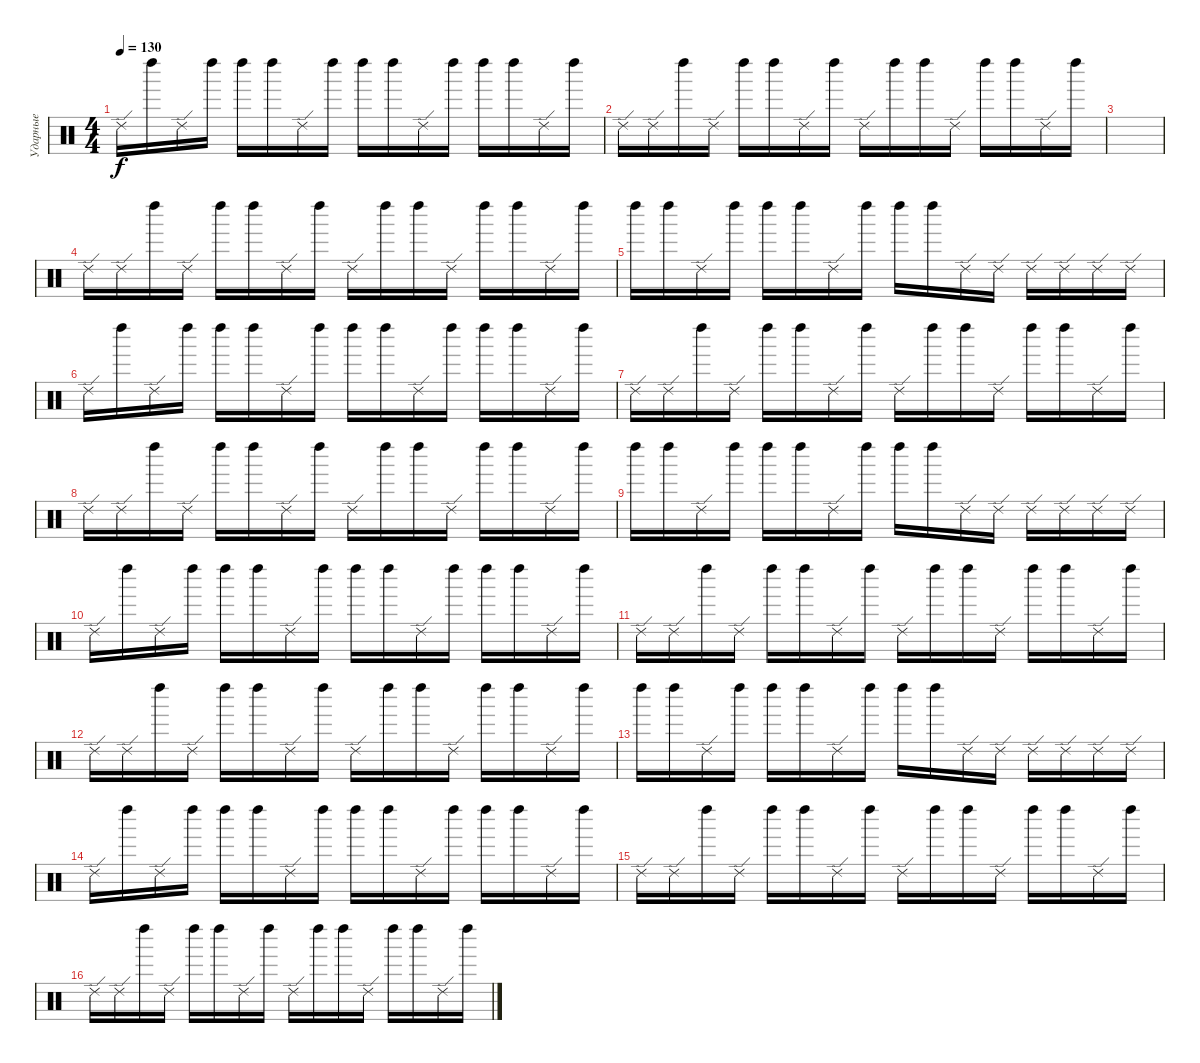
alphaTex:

\track ("Ударные" "Ударные") {instrument percussion}
\staff {score}
\articulation defaults
\ts (4 4)
\tempo 130
\clef neutral
\ks c "Ride (edge) 2".16{dy f} "Left Maraca (hit)".16 "Ride (edge) 2".16 "Left Maraca (hit)".16 "Left Maraca (hit)".16 "Left Maraca (hit)".16 "Ride (edge) 2".16 "Left Maraca (hit)".16 "Left Maraca (hit)".16 "Left Maraca (hit)".16 "Ride (edge) 2".16 "Left Maraca (hit)".16 "Left Maraca (hit)".16 "Left Maraca (hit)".16 "Ride (edge) 2".16 "Left Maraca (hit)".16
|
"Ride (edge) 2".16 "Ride (edge) 2".16 "Left Maraca (hit)".16 "Ride (edge) 2".16 "Left Maraca (hit)".16 "Left Maraca (hit)".16 "Ride (edge) 2".16 "Left Maraca (hit)".16 "Ride (edge) 2".16 "Left Maraca (hit)".16 "Left Maraca (hit)".16 "Ride (edge) 2".16 "Left Maraca (hit)".16 "Left Maraca (hit)".16 "Ride (edge) 2".16 "Left Maraca (hit)".16 |
|
"Ride (edge) 2".16 "Ride (edge) 2".16 "Left Maraca (hit)".16 "Ride (edge) 2".16 "Left Maraca (hit)".16 "Left Maraca (hit)".16 "Ride (edge) 2".16 "Left Maraca (hit)".16 "Ride (edge) 2".16 "Left Maraca (hit)".16 "Left Maraca (hit)".16 "Ride (edge) 2".16 "Left Maraca (hit)".16 "Left Maraca (hit)".16 "Ride (edge) 2".16 "Left Maraca (hit)".16 |
"Left Maraca (hit)".16 "Left Maraca (hit)".16 "Ride (edge) 2".16 "Left Maraca (hit)".16 "Left Maraca (hit)".16 "Left Maraca (hit)".16 "Ride (edge) 2".16 "Left Maraca (hit)".16 "Left Maraca (hit)".16 "Left Maraca (hit)".16 "Ride (edge) 2".16 "Ride (edge) 2".16 "Ride (edge) 2".16 "Ride (edge) 2".16 "Ride (edge) 2".16 "Ride (edge) 2".16 |
"Ride (edge) 2".16 "Left Maraca (hit)".16 "Ride (edge) 2".16 "Left Maraca (hit)".16 "Left Maraca (hit)".16 "Left Maraca (hit)".16 "Ride (edge) 2".16 "Left Maraca (hit)".16 "Left Maraca (hit)".16 "Left Maraca (hit)".16 "Ride (edge) 2".16 "Left Maraca (hit)".16 "Left Maraca (hit)".16 "Left Maraca (hit)".16 "Ride (edge) 2".16 "Left Maraca (hit)".16 |
"Ride (edge) 2".16 "Ride (edge) 2".16 "Left Maraca (hit)".16 "Ride (edge) 2".16 "Left Maraca (hit)".16 "Left Maraca (hit)".16 "Ride (edge) 2".16 "Left Maraca (hit)".16 "Ride (edge) 2".16 "Left Maraca (hit)".16 "Left Maraca (hit)".16 "Ride (edge) 2".16 "Left Maraca (hit)".16 "Left Maraca (hit)".16 "Ride (edge) 2".16 "Left Maraca (hit)".16 |
"Ride (edge) 2".16 "Ride (edge) 2".16 "Left Maraca (hit)".16 "Ride (edge) 2".16 "Left Maraca (hit)".16 "Left Maraca (hit)".16 "Ride (edge) 2".16 "Left Maraca (hit)".16 "Ride (edge) 2".16 "Left Maraca (hit)".16 "Left Maraca (hit)".16 "Ride (edge) 2".16 "Left Maraca (hit)".16 "Left Maraca (hit)".16 "Ride (edge) 2".16 "Left Maraca (hit)".16 |
"Left Maraca (hit)".16 "Left Maraca (hit)".16 "Ride (edge) 2".16 "Left Maraca (hit)".16 "Left Maraca (hit)".16 "Left Maraca (hit)".16 "Ride (edge) 2".16 "Left Maraca (hit)".16 "Left Maraca (hit)".16 "Left Maraca (hit)".16 "Ride (edge) 2".16 "Ride (edge) 2".16 "Ride (edge) 2".16 "Ride (edge) 2".16 "Ride (edge) 2".16 "Ride (edge) 2".16 |
"Ride (edge) 2".16 "Left Maraca (hit)".16 "Ride (edge) 2".16 "Left Maraca (hit)".16 "Left Maraca (hit)".16 "Left Maraca (hit)".16 "Ride (edge) 2".16 "Left Maraca (hit)".16 "Left Maraca (hit)".16 "Left Maraca (hit)".16 "Ride (edge) 2".16 "Left Maraca (hit)".16 "Left Maraca (hit)".16 "Left Maraca (hit)".16 "Ride (edge) 2".16 "Left Maraca (hit)".16 |
"Ride (edge) 2".16 "Ride (edge) 2".16 "Left Maraca (hit)".16 "Ride (edge) 2".16 "Left Maraca (hit)".16 "Left Maraca (hit)".16 "Ride (edge) 2".16 "Left Maraca (hit)".16 "Ride (edge) 2".16 "Left Maraca (hit)".16 "Left Maraca (hit)".16 "Ride (edge) 2".16 "Left Maraca (hit)".16 "Left Maraca (hit)".16 "Ride (edge) 2".16 "Left Maraca (hit)".16 |
"Ride (edge) 2".16 "Ride (edge) 2".16 "Left Maraca (hit)".16 "Ride (edge) 2".16 "Left Maraca (hit)".16 "Left Maraca (hit)".16 "Ride (edge) 2".16 "Left Maraca (hit)".16 "Ride (edge) 2".16 "Left Maraca (hit)".16 "Left Maraca (hit)".16 "Ride (edge) 2".16 "Left Maraca (hit)".16 "Left Maraca (hit)".16 "Ride (edge) 2".16 "Left Maraca (hit)".16 |
"Left Maraca (hit)".16 "Left Maraca (hit)".16 "Ride (edge) 2".16 "Left Maraca (hit)".16 "Left Maraca (hit)".16 "Left Maraca (hit)".16 "Ride (edge) 2".16 "Left Maraca (hit)".16 "Left Maraca (hit)".16 "Left Maraca (hit)".16 "Ride (edge) 2".16 "Ride (edge) 2".16 "Ride (edge) 2".16 "Ride (edge) 2".16 "Ride (edge) 2".16 "Ride (edge) 2".16 |
"Ride (edge) 2".16 "Left Maraca (hit)".16 "Ride (edge) 2".16 "Left Maraca (hit)".16 "Left Maraca (hit)".16 "Left Maraca (hit)".16 "Ride (edge) 2".16 "Left Maraca (hit)".16 "Left Maraca (hit)".16 "Left Maraca (hit)".16 "Ride (edge) 2".16 "Left Maraca (hit)".16 "Left Maraca (hit)".16 "Left Maraca (hit)".16 "Ride (edge) 2".16 "Left Maraca (hit)".16 |
"Ride (edge) 2".16 "Ride (edge) 2".16 "Left Maraca (hit)".16 "Ride (edge) 2".16 "Left Maraca (hit)".16 "Left Maraca (hit)".16 "Ride (edge) 2".16 "Left Maraca (hit)".16 "Ride (edge) 2".16 "Left Maraca (hit)".16 "Left Maraca (hit)".16 "Ride (edge) 2".16 "Left Maraca (hit)".16 "Left Maraca (hit)".16 "Ride (edge) 2".16 "Left Maraca (hit)".16 |
"Ride (edge) 2".16 "Ride (edge) 2".16 "Left Maraca (hit)".16 "Ride (edge) 2".16 "Left Maraca (hit)".16 "Left Maraca (hit)".16 "Ride (edge) 2".16 "Left Maraca (hit)".16 "Ride (edge) 2".16 "Left Maraca (hit)".16 "Left Maraca (hit)".16 "Ride (edge) 2".16 "Left Maraca (hit)".16 "Left Maraca (hit)".16 "Ride (edge) 2".16 "Left Maraca (hit)".16
